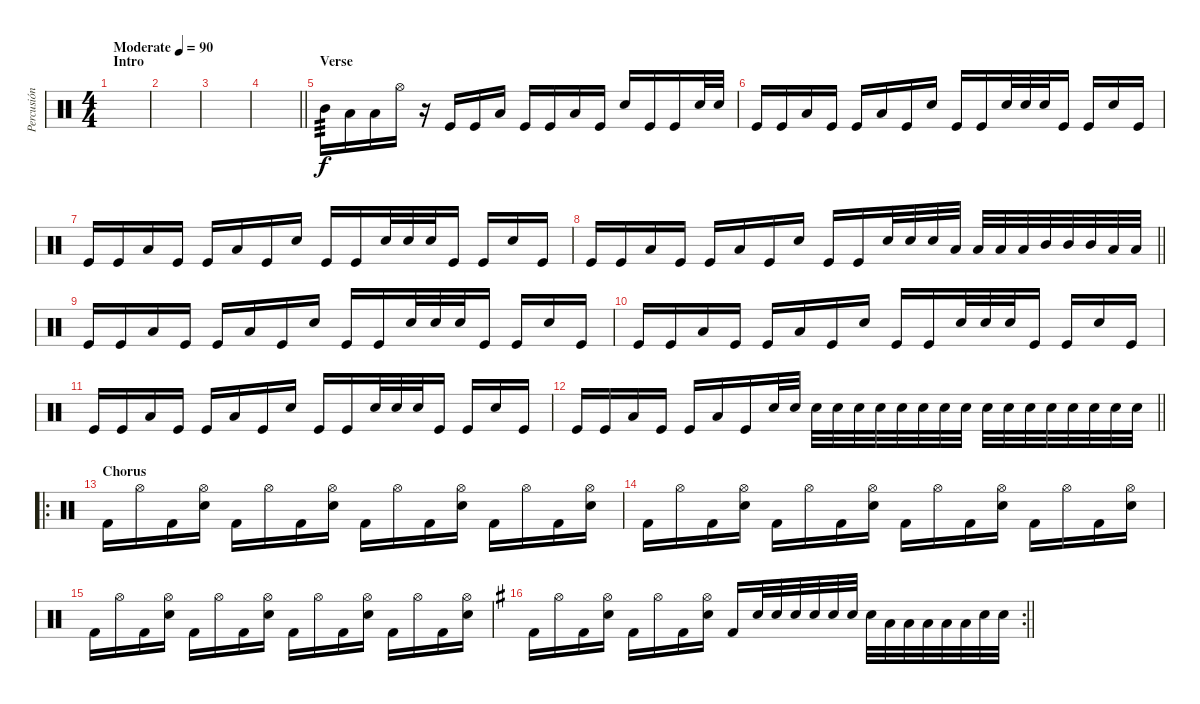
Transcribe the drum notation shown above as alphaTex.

\track ("Percusión" "Percusión") {instrument percussion}
\staff {score}
\articulation defaults
\ts (4 4)
\section ("" "Intro")
\tempo (90 "Moderate")
\clef neutral
\ks c
|
|
|
\barLineRight lightlight
|
\section ("" "Verse")
"Mid Tom (hit)".16{tp 3} "Low Tom (hit)".16 "Low Tom (hit)".16 "Hi-Hat (open)".16 r.16 "Kick (hit)".16 "Kick (hit)".16 "Low Tom (hit)".16 "Kick (hit)".16 "Kick (hit)".16 "Low Tom (hit)".16 "Kick (hit)".16 "Electric Snare (hit)".16 "Kick (hit)".16 "Kick (hit)".16 "Electric Snare (hit)".32 "Electric Snare (hit)".32 |
"Kick (hit)".16 "Kick (hit)".16 "Low Tom (hit)".16 "Kick (hit)".16 "Kick (hit)".16 "Low Tom (hit)".16 "Kick (hit)".16 "Electric Snare (hit)".16 "Kick (hit)".16 "Kick (hit)".16 "Electric Snare (hit)".32 "Electric Snare (hit)".32 "Electric Snare (hit)".32 "Kick (hit)".16 "Kick (hit)".16 "Electric Snare (hit)".16 "Kick (hit)".16 |
"Kick (hit)".16 "Kick (hit)".16 "Low Tom (hit)".16 "Kick (hit)".16 "Kick (hit)".16 "Low Tom (hit)".16 "Kick (hit)".16 "Electric Snare (hit)".16 "Kick (hit)".16 "Kick (hit)".16 "Electric Snare (hit)".32 "Electric Snare (hit)".32 "Electric Snare (hit)".32 "Kick (hit)".16 "Kick (hit)".16 "Electric Snare (hit)".16 "Kick (hit)".16 |
\barLineRight lightlight "Kick (hit)".16 "Kick (hit)".16 "Low Tom (hit)".16 "Kick (hit)".16 "Kick (hit)".16 "Low Tom (hit)".16 "Kick (hit)".16 "Electric Snare (hit)".16 "Kick (hit)".16 "Kick (hit)".16 "Electric Snare (hit)".32 "Electric Snare (hit)".32 "Electric Snare (hit)".32 "Low Tom (hit)".32 "Low Tom (hit)".32 "Low Tom (hit)".32 "Low Tom (hit)".32 "Mid Tom (hit)".32 "Mid Tom (hit)".32 "Mid Tom (hit)".32 "Low Tom (hit)".32 "Low Tom (hit)".32
|
"Kick (hit)".16 "Kick (hit)".16 "Low Tom (hit)".16 "Kick (hit)".16 "Kick (hit)".16 "Low Tom (hit)".16 "Kick (hit)".16 "Electric Snare (hit)".16 "Kick (hit)".16 "Kick (hit)".16 "Electric Snare (hit)".32 "Electric Snare (hit)".32 "Electric Snare (hit)".32 "Kick (hit)".16 "Kick (hit)".16 "Electric Snare (hit)".16 "Kick (hit)".16 |
"Kick (hit)".16 "Kick (hit)".16 "Low Tom (hit)".16 "Kick (hit)".16 "Kick (hit)".16 "Low Tom (hit)".16 "Kick (hit)".16 "Electric Snare (hit)".16 "Kick (hit)".16 "Kick (hit)".16 "Electric Snare (hit)".32 "Electric Snare (hit)".32 "Electric Snare (hit)".32 "Kick (hit)".16 "Kick (hit)".16 "Electric Snare (hit)".16 "Kick (hit)".16 |
"Kick (hit)".16 "Kick (hit)".16 "Low Tom (hit)".16 "Kick (hit)".16 "Kick (hit)".16 "Low Tom (hit)".16 "Kick (hit)".16 "Electric Snare (hit)".16 "Kick (hit)".16 "Kick (hit)".16 "Electric Snare (hit)".32 "Electric Snare (hit)".32 "Electric Snare (hit)".32 "Kick (hit)".16 "Kick (hit)".16 "Electric Snare (hit)".16 "Kick (hit)".16 |
\barLineRight lightlight "Kick (hit)".16 "Kick (hit)".16 "Low Tom (hit)".16 "Kick (hit)".16 "Kick (hit)".16 "Low Tom (hit)".16 "Kick (hit)".16 "Electric Snare (hit)".32{volume 10} "Electric Snare (hit)".32 "Electric Snare (hit)".32 "Electric Snare (hit)".32{volume 12} "Electric Snare (hit)".32 "Electric Snare (hit)".32 "Electric Snare (hit)".32 "Electric Snare (hit)".32{volume 13} "Electric Snare (hit)".32 "Electric Snare (hit)".32 "Electric Snare (hit)".32 "Electric Snare (hit)".32 "Electric Snare (hit)".32{volume 16} "Electric Snare (hit)".32 "Electric Snare (hit)".32 "Electric Snare (hit)".32 "Electric Snare (hit)".32 "Electric Snare (hit)".32
|
\ro
\section ("" "Chorus")
"Kick (hit) 2".16 "Hi-Hat (open)".16 "Kick (hit) 2".16 ("Hi-Hat (open)" "Electric Snare (hit)").16 "Kick (hit) 2".16 "Hi-Hat (open)".16 "Kick (hit) 2".16 ("Hi-Hat (open)" "Electric Snare (hit)").16 "Kick (hit) 2".16 "Hi-Hat (open)".16 "Kick (hit) 2".16 ("Hi-Hat (open)" "Electric Snare (hit)").16 "Kick (hit) 2".16 "Hi-Hat (open)".16 "Kick (hit) 2".16 ("Hi-Hat (open)" "Electric Snare (hit)").16 |
"Kick (hit) 2".16 "Hi-Hat (open)".16 "Kick (hit) 2".16 ("Hi-Hat (open)" "Electric Snare (hit)").16 "Kick (hit) 2".16 "Hi-Hat (open)".16 "Kick (hit) 2".16 ("Hi-Hat (open)" "Electric Snare (hit)").16 "Kick (hit) 2".16 "Hi-Hat (open)".16 "Kick (hit) 2".16 ("Hi-Hat (open)" "Electric Snare (hit)").16 "Kick (hit) 2".16 "Hi-Hat (open)".16 "Kick (hit) 2".16 ("Hi-Hat (open)" "Electric Snare (hit)").16 |
"Kick (hit) 2".16 "Hi-Hat (open)".16 "Kick (hit) 2".16 ("Hi-Hat (open)" "Electric Snare (hit)").16 "Kick (hit) 2".16 "Hi-Hat (open)".16 "Kick (hit) 2".16 ("Hi-Hat (open)" "Electric Snare (hit)").16 "Kick (hit) 2".16 "Hi-Hat (open)".16 "Kick (hit) 2".16 ("Hi-Hat (open)" "Electric Snare (hit)").16 "Kick (hit) 2".16 "Hi-Hat (open)".16 "Kick (hit) 2".16 ("Hi-Hat (open)" "Electric Snare (hit)").16 |
\rc 2
\barLineRight lightlight
\ks g "Kick (hit) 2".16 "Hi-Hat (open)".16 "Kick (hit) 2".16
("Hi-Hat (open)" "Electric Snare (hit)").16 "Kick (hit) 2".16 "Hi-Hat (open)".16 "Kick (hit) 2".16 ("Hi-Hat (open)" "Electric Snare (hit)").16 "Kick (hit) 2".16 "Electric Snare (hit)".32 "Electric Snare (hit)".32 "Electric Snare (hit)".32 "Electric Snare (hit)".32 "Electric Snare (hit)".32 "Electric Snare (hit)".32 "Electric Snare (hit)".32 "Low Tom (hit)".32 "Low Tom (hit)".32 "Low Tom (hit)".32 "Low Tom (hit)".32 "Low Tom (hit)".32 "Electric Snare (hit)".32 "Electric Snare (hit)".32
